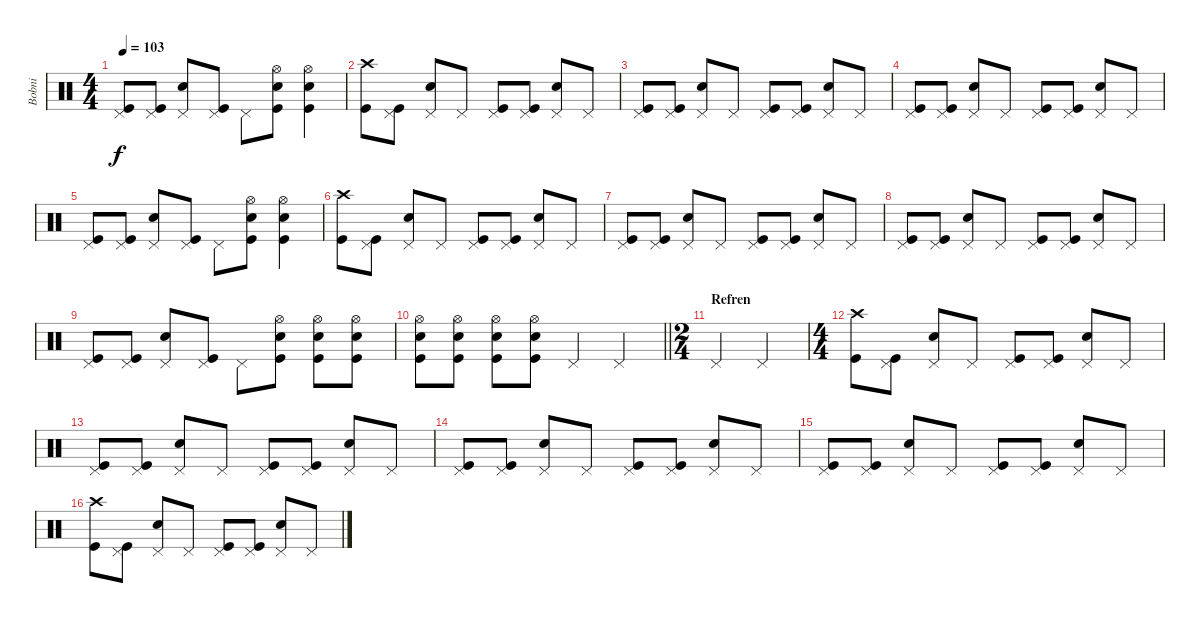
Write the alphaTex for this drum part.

\track ("Bobni" "Bobni") {instrument percussion}
\staff {score}
\articulation defaults
\ts (4 4)
\tempo 103
\clef neutral
\ks aminor
("Pedal Hi-Hat (hit)" "Kick (hit)").8{dy f} ("Pedal Hi-Hat (hit)" "Kick (hit)").8 ("Pedal Hi-Hat (hit)" "Snare (hit) 2").8 ("Pedal Hi-Hat (hit)" "Kick (hit)").8 "Pedal Hi-Hat (hit)".8 ("Hi-Hat (open)" "Snare (hit) 2" "Kick (hit)").8 ("Hi-Hat (open)" "Snare (hit) 2" "Kick (hit)").4{beam Down} |
("Crash high (hit)" "Kick (hit)").8 ("Pedal Hi-Hat (hit)" "Kick (hit)").8 ("Pedal Hi-Hat (hit)" "Snare (hit) 2").8 "Pedal Hi-Hat (hit)".8 ("Pedal Hi-Hat (hit)" "Kick (hit)").8 ("Pedal Hi-Hat (hit)" "Kick (hit)").8 ("Pedal Hi-Hat (hit)" "Snare (hit) 2").8 "Pedal Hi-Hat (hit)".8 |
("Pedal Hi-Hat (hit)" "Kick (hit)").8 ("Pedal Hi-Hat (hit)" "Kick (hit)").8 ("Pedal Hi-Hat (hit)" "Snare (hit) 2").8 "Pedal Hi-Hat (hit)".8 ("Pedal Hi-Hat (hit)" "Kick (hit)").8 ("Pedal Hi-Hat (hit)" "Kick (hit)").8 ("Pedal Hi-Hat (hit)" "Snare (hit) 2").8 "Pedal Hi-Hat (hit)".8 |
("Pedal Hi-Hat (hit)" "Kick (hit)").8 ("Pedal Hi-Hat (hit)" "Kick (hit)").8 ("Pedal Hi-Hat (hit)" "Snare (hit) 2").8 "Pedal Hi-Hat (hit)".8 ("Pedal Hi-Hat (hit)" "Kick (hit)").8 ("Pedal Hi-Hat (hit)" "Kick (hit)").8 ("Pedal Hi-Hat (hit)" "Snare (hit) 2").8 "Pedal Hi-Hat (hit)".8 |
("Pedal Hi-Hat (hit)" "Kick (hit)").8 ("Pedal Hi-Hat (hit)" "Kick (hit)").8 ("Pedal Hi-Hat (hit)" "Snare (hit) 2").8 ("Pedal Hi-Hat (hit)" "Kick (hit)").8 "Pedal Hi-Hat (hit)".8 ("Hi-Hat (open)" "Snare (hit) 2" "Kick (hit)").8 ("Hi-Hat (open)" "Snare (hit) 2" "Kick (hit)").4 |
("Crash high (hit)" "Kick (hit)").8 ("Pedal Hi-Hat (hit)" "Kick (hit)").8 ("Pedal Hi-Hat (hit)" "Snare (hit) 2").8 "Pedal Hi-Hat (hit)".8 ("Pedal Hi-Hat (hit)" "Kick (hit)").8 ("Pedal Hi-Hat (hit)" "Kick (hit)").8 ("Pedal Hi-Hat (hit)" "Snare (hit) 2").8 "Pedal Hi-Hat (hit)".8 |
("Pedal Hi-Hat (hit)" "Kick (hit)").8 ("Pedal Hi-Hat (hit)" "Kick (hit)").8 ("Pedal Hi-Hat (hit)" "Snare (hit) 2").8 "Pedal Hi-Hat (hit)".8 ("Pedal Hi-Hat (hit)" "Kick (hit)").8 ("Pedal Hi-Hat (hit)" "Kick (hit)").8 ("Pedal Hi-Hat (hit)" "Snare (hit) 2").8 "Pedal Hi-Hat (hit)".8 |
("Pedal Hi-Hat (hit)" "Kick (hit)").8 ("Pedal Hi-Hat (hit)" "Kick (hit)").8 ("Pedal Hi-Hat (hit)" "Snare (hit) 2").8 "Pedal Hi-Hat (hit)".8 ("Pedal Hi-Hat (hit)" "Kick (hit)").8 ("Pedal Hi-Hat (hit)" "Kick (hit)").8 ("Pedal Hi-Hat (hit)" "Snare (hit) 2").8 "Pedal Hi-Hat (hit)".8 |
("Pedal Hi-Hat (hit)" "Kick (hit)").8 ("Pedal Hi-Hat (hit)" "Kick (hit)").8 ("Pedal Hi-Hat (hit)" "Snare (hit) 2").8 ("Pedal Hi-Hat (hit)" "Kick (hit)").8 "Pedal Hi-Hat (hit)".8 ("Hi-Hat (open)" "Snare (hit) 2" "Kick (hit)").8 ("Hi-Hat (open)" "Snare (hit) 2" "Kick (hit)").8 ("Hi-Hat (open)" "Snare (hit) 2" "Kick (hit)").8 |
\barLineRight lightlight
("Hi-Hat (open)" "Snare (hit) 2" "Kick (hit)").8 ("Hi-Hat (open)" "Snare (hit) 2" "Kick (hit)").8 ("Hi-Hat (open)" "Snare (hit) 2" "Kick (hit)").8 ("Hi-Hat (open)" "Snare (hit) 2" "Kick (hit)").8 "Pedal Hi-Hat (hit)".4 "Pedal Hi-Hat (hit)".4 |
\ts (2 4)
\section ("" "Refren")
"Pedal Hi-Hat (hit)".4 "Pedal Hi-Hat (hit)".4 |
\ts (4 4)
("Crash high (hit)" "Kick (hit)").8 ("Pedal Hi-Hat (hit)" "Kick (hit)").8 ("Pedal Hi-Hat (hit)" "Snare (hit) 2").8 "Pedal Hi-Hat (hit)".8 ("Pedal Hi-Hat (hit)" "Kick (hit)").8 ("Pedal Hi-Hat (hit)" "Kick (hit)").8 ("Pedal Hi-Hat (hit)" "Snare (hit) 2").8 "Pedal Hi-Hat (hit)".8 |
("Pedal Hi-Hat (hit)" "Kick (hit)").8 ("Pedal Hi-Hat (hit)" "Kick (hit)").8 ("Pedal Hi-Hat (hit)" "Snare (hit) 2").8 "Pedal Hi-Hat (hit)".8 ("Pedal Hi-Hat (hit)" "Kick (hit)").8 ("Pedal Hi-Hat (hit)" "Kick (hit)").8 ("Pedal Hi-Hat (hit)" "Snare (hit) 2").8 "Pedal Hi-Hat (hit)".8 |
("Pedal Hi-Hat (hit)" "Kick (hit)").8 ("Pedal Hi-Hat (hit)" "Kick (hit)").8 ("Pedal Hi-Hat (hit)" "Snare (hit) 2").8 "Pedal Hi-Hat (hit)".8 ("Pedal Hi-Hat (hit)" "Kick (hit)").8 ("Pedal Hi-Hat (hit)" "Kick (hit)").8 ("Pedal Hi-Hat (hit)" "Snare (hit) 2").8 "Pedal Hi-Hat (hit)".8 |
("Pedal Hi-Hat (hit)" "Kick (hit)").8 ("Pedal Hi-Hat (hit)" "Kick (hit)").8 ("Pedal Hi-Hat (hit)" "Snare (hit) 2").8 "Pedal Hi-Hat (hit)".8 ("Pedal Hi-Hat (hit)" "Kick (hit)").8 ("Pedal Hi-Hat (hit)" "Kick (hit)").8 ("Pedal Hi-Hat (hit)" "Snare (hit) 2").8 "Pedal Hi-Hat (hit)".8 |
("Crash high (hit)" "Kick (hit)").8 ("Pedal Hi-Hat (hit)" "Kick (hit)").8 ("Pedal Hi-Hat (hit)" "Snare (hit) 2").8 "Pedal Hi-Hat (hit)".8 ("Pedal Hi-Hat (hit)" "Kick (hit)").8 ("Pedal Hi-Hat (hit)" "Kick (hit)").8 ("Pedal Hi-Hat (hit)" "Snare (hit) 2").8 "Pedal Hi-Hat (hit)".8
